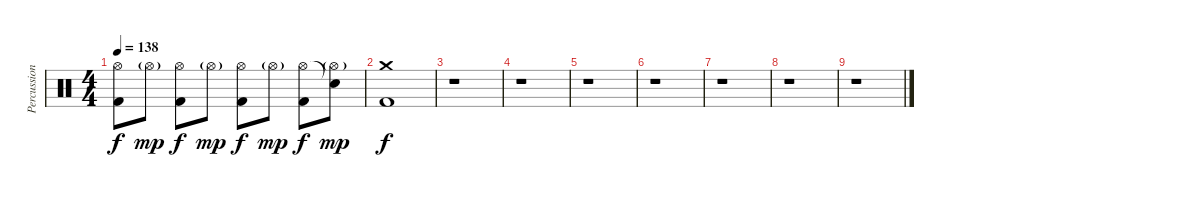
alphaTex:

\track ("Percussion" "Percussion") {instrument percussion}
\staff {score}
\articulation defaults
\ts (4 4)
\tempo 138
\clef neutral
\ks c
("Hi-Hat (open)" "Kick (hit) 2").8{dy f} "Hi-Hat (open)"{g}.8{dy mp} ("Hi-Hat (open)" "Kick (hit) 2").8{dy f} "Hi-Hat (open)"{g}.8{dy mp} ("Hi-Hat (open)" "Kick (hit) 2").8{dy f} "Hi-Hat (open)"{g}.8{dy mp} ("Hi-Hat (open)" "Kick (hit) 2").8{dy f} ("Snare (hit)"{t} "Hi-Hat (open)"{g}).8{dy mp} |
("Crash medium (hit)" "Kick (hit) 2").1{dy f} |
r.1 |
r.1 |
r.1 |
r.1 |
r.1 |
r.1 |
r.1
